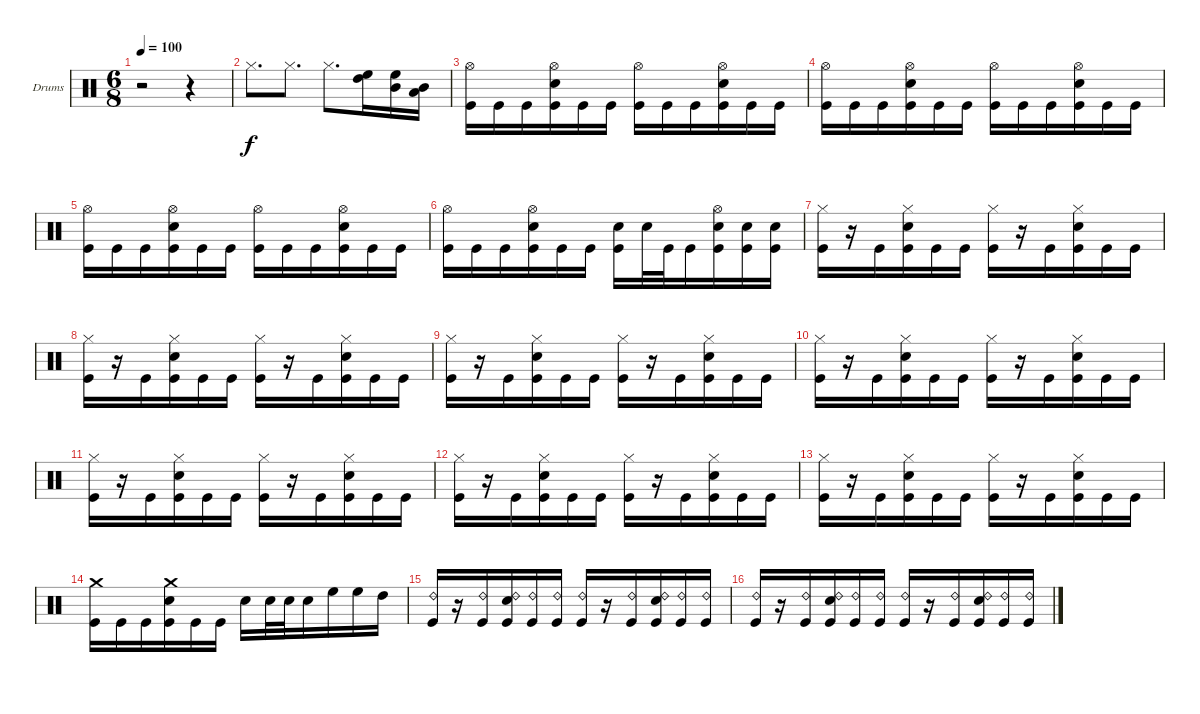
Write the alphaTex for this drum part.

\defaultSystemsLayout 4
\bracketExtendMode groupsimilarinstruments
\firstSystemTrackNameOrientation horizontal
\otherSystemsTrackNameOrientation horizontal
\track ("Drumkit" "Drums") {instrument percussion}
\staff {score}
\articulation defaults
\ts (6 8)
\tempo 100
\clef neutral
\scale
0.474178
\ks c
r.2{dy f} r.4 |
\scale
0.262911 "Hi-Hat (closed)".8{d lyrics (0 "") lyrics (1 "") lyrics (2 "") lyrics (3 "") lyrics (4 "")} "Hi-Hat (closed)".8{d lyrics (0 "") lyrics (1 "") lyrics (2 "") lyrics (3 "") lyrics (4 "")} "Hi-Hat (closed)".8{d} ("High Floor Tom (hit)" "High Tom (hit)").16 ("High Floor Tom (hit)" "Mid Tom (hit)").16 ("Mid Tom (hit)" "Low Tom (hit)").16 |
\scale
0.262911 ("Hi-Hat (open)" "Kick (hit)").16{lyrics (0 "") lyrics (1 "") lyrics (2 "") lyrics (3 "") lyrics (4 "")} "Kick (hit)".16{lyrics (0 "") lyrics (1 "") lyrics (2 "") lyrics (3 "") lyrics (4 "")} "Kick (hit)".16 ("Hi-Hat (open)" "Snare (hit) 2" "Kick (hit)").16 "Kick (hit)".16 "Kick (hit)".16 ("Hi-Hat (open)" "Kick (hit)").16 "Kick (hit)".16 "Kick (hit)".16 ("Hi-Hat (open)" "Snare (hit) 2" "Kick (hit)").16 "Kick (hit)".16 "Kick (hit)".16 |
\scale
0.333333 ("Hi-Hat (open)" "Kick (hit)").16{lyrics (0 "") lyrics (1 "") lyrics (2 "") lyrics (3 "") lyrics (4 "")} "Kick (hit)".16{lyrics (0 "") lyrics (1 "") lyrics (2 "") lyrics (3 "") lyrics (4 "")} "Kick (hit)".16 ("Hi-Hat (open)" "Snare (hit) 2" "Kick (hit)").16 "Kick (hit)".16 "Kick (hit)".16 ("Hi-Hat (open)" "Kick (hit)").16 "Kick (hit)".16 "Kick (hit)".16 ("Hi-Hat (open)" "Snare (hit) 2" "Kick (hit)").16 "Kick (hit)".16 "Kick (hit)".16 |
\scale
0.333333 ("Hi-Hat (open)" "Kick (hit)").16{lyrics (0 "") lyrics (1 "") lyrics (2 "") lyrics (3 "") lyrics (4 "")} "Kick (hit)".16{lyrics (0 "") lyrics (1 "") lyrics (2 "") lyrics (3 "") lyrics (4 "")} "Kick (hit)".16 ("Hi-Hat (open)" "Snare (hit) 2" "Kick (hit)").16 "Kick (hit)".16 "Kick (hit)".16 ("Hi-Hat (open)" "Kick (hit)").16 "Kick (hit)".16 "Kick (hit)".16 ("Hi-Hat (open)" "Snare (hit) 2" "Kick (hit)").16 "Kick (hit)".16 "Kick (hit)".16 |
\scale
0.333333 ("Hi-Hat (open)" "Kick (hit)").16{lyrics (0 "") lyrics (1 "") lyrics (2 "") lyrics (3 "") lyrics (4 "")} "Kick (hit)".16{lyrics (0 "") lyrics (1 "") lyrics (2 "") lyrics (3 "") lyrics (4 "")} "Kick (hit)".16 ("Hi-Hat (open)" "Snare (hit) 2" "Kick (hit)").16 "Kick (hit)".16 "Kick (hit)".16 ("Snare (hit) 2" "Kick (hit)").16 "Snare (hit) 2".32 "Kick (hit)".32 "Kick (hit)".16 ("Hi-Hat (open)" "Snare (hit) 2" "Kick (hit)").16 ("Snare (hit) 2" "Kick (hit)").16 ("Snare (hit) 2" "Kick (hit)").16 |
\scale
0.333333 ("Kick (hit)" "Hi-Hat (closed)").16{lyrics (0 "") lyrics (1 "") lyrics (2 "") lyrics (3 "") lyrics (4 "")} r.16 "Kick (hit)".16{lyrics (0 "") lyrics (1 "") lyrics (2 "") lyrics (3 "") lyrics (4 "")} ("Kick (hit)" "Snare (hit) 2" "Hi-Hat (closed)").16 "Kick (hit)".16 "Kick (hit)".16 ("Kick (hit)" "Hi-Hat (closed)").16 r.16 "Kick (hit)".16 ("Kick (hit)" "Snare (hit) 2" "Hi-Hat (closed)").16 "Kick (hit)".16 "Kick (hit)".16 |
\scale
0.333333 ("Kick (hit)" "Hi-Hat (closed)").16{lyrics (0 "") lyrics (1 "") lyrics (2 "") lyrics (3 "") lyrics (4 "")} r.16 "Kick (hit)".16{lyrics (0 "") lyrics (1 "") lyrics (2 "") lyrics (3 "") lyrics (4 "")} ("Kick (hit)" "Snare (hit) 2" "Hi-Hat (closed)").16 "Kick (hit)".16 "Kick (hit)".16 ("Kick (hit)" "Hi-Hat (closed)").16 r.16 "Kick (hit)".16 ("Kick (hit)" "Snare (hit) 2" "Hi-Hat (closed)").16 "Kick (hit)".16 "Kick (hit)".16 |
\scale
0.333333 ("Kick (hit)" "Hi-Hat (closed)").16{lyrics (0 "") lyrics (1 "") lyrics (2 "") lyrics (3 "") lyrics (4 "")} r.16 "Kick (hit)".16{lyrics (0 "") lyrics (1 "") lyrics (2 "") lyrics (3 "") lyrics (4 "")} ("Kick (hit)" "Snare (hit) 2" "Hi-Hat (closed)").16 "Kick (hit)".16 "Kick (hit)".16 ("Kick (hit)" "Hi-Hat (closed)").16 r.16 "Kick (hit)".16 ("Kick (hit)" "Snare (hit) 2" "Hi-Hat (closed)").16 "Kick (hit)".16 "Kick (hit)".16 |
\scale
0.333333 ("Kick (hit)" "Hi-Hat (closed)").16{lyrics (0 "") lyrics (1 "") lyrics (2 "") lyrics (3 "") lyrics (4 "")} r.16 "Kick (hit)".16{lyrics (0 "") lyrics (1 "") lyrics (2 "") lyrics (3 "") lyrics (4 "")} ("Kick (hit)" "Snare (hit) 2" "Hi-Hat (closed)").16 "Kick (hit)".16 "Kick (hit)".16 ("Kick (hit)" "Hi-Hat (closed)").16 r.16 "Kick (hit)".16 ("Kick (hit)" "Snare (hit) 2" "Hi-Hat (closed)").16 "Kick (hit)".16 "Kick (hit)".16 |
\scale
0.333333 ("Kick (hit)" "Hi-Hat (closed)").16{lyrics (0 "") lyrics (1 "") lyrics (2 "") lyrics (3 "") lyrics (4 "")} r.16 "Kick (hit)".16{lyrics (0 "") lyrics (1 "") lyrics (2 "") lyrics (3 "") lyrics (4 "")} ("Kick (hit)" "Snare (hit) 2" "Hi-Hat (closed)").16 "Kick (hit)".16 "Kick (hit)".16 ("Kick (hit)" "Hi-Hat (closed)").16 r.16 "Kick (hit)".16 ("Kick (hit)" "Snare (hit) 2" "Hi-Hat (closed)").16 "Kick (hit)".16 "Kick (hit)".16 |
\scale
0.333333 ("Kick (hit)" "Hi-Hat (closed)").16{lyrics (0 "") lyrics (1 "") lyrics (2 "") lyrics (3 "") lyrics (4 "")} r.16 "Kick (hit)".16{lyrics (0 "") lyrics (1 "") lyrics (2 "") lyrics (3 "") lyrics (4 "")} ("Kick (hit)" "Snare (hit) 2" "Hi-Hat (closed)").16 "Kick (hit)".16 "Kick (hit)".16 ("Kick (hit)" "Hi-Hat (closed)").16 r.16 "Kick (hit)".16 ("Kick (hit)" "Snare (hit) 2" "Hi-Hat (closed)").16 "Kick (hit)".16 "Kick (hit)".16 |
\scale
0.333333 ("Kick (hit)" "Hi-Hat (closed)").16{lyrics (0 "") lyrics (1 "") lyrics (2 "") lyrics (3 "") lyrics (4 "")} r.16 "Kick (hit)".16{lyrics (0 "") lyrics (1 "") lyrics (2 "") lyrics (3 "") lyrics (4 "")} ("Kick (hit)" "Snare (hit) 2" "Hi-Hat (closed)").16 "Kick (hit)".16 "Kick (hit)".16 ("Kick (hit)" "Hi-Hat (closed)").16 r.16 "Kick (hit)".16 ("Kick (hit)" "Snare (hit) 2" "Hi-Hat (closed)").16 "Kick (hit)".16 "Kick (hit)".16 |
\scale
0.333333 ("Kick (hit)" "Crash medium (hit)").16{lyrics (0 "") lyrics (1 "") lyrics (2 "") lyrics (3 "") lyrics (4 "")} "Kick (hit)".16{lyrics (0 "") lyrics (1 "") lyrics (2 "") lyrics (3 "") lyrics (4 "")} "Kick (hit)".16 ("Kick (hit)" "Snare (hit) 2" "Crash medium (hit)").16 "Kick (hit)".16 "Kick (hit)".16 "Snare (hit) 2".16 "Snare (hit) 2".32 "Snare (hit) 2".32 "Snare (hit) 2".16 "High Floor Tom (hit)".16 "High Floor Tom (hit)".16 "High Tom (hit)".16 |
\scale
0.333333 ("Kick (hit)" "Ride (bell) 2").16{lyrics (0 "") lyrics (1 "") lyrics (2 "") lyrics (3 "") lyrics (4 "")} r.16 ("Kick (hit)" "Ride (bell) 2").16{lyrics (0 "") lyrics (1 "") lyrics (2 "") lyrics (3 "") lyrics (4 "")} ("Kick (hit)" "Snare (hit) 2" "Ride (bell) 2").16 ("Kick (hit)" "Ride (bell) 2").16 ("Kick (hit)" "Ride (bell) 2").16 ("Kick (hit)" "Ride (bell) 2").16 r.16 ("Kick (hit)" "Ride (bell) 2").16 ("Kick (hit)" "Snare (hit) 2" "Ride (bell) 2").16 ("Kick (hit)" "Ride (bell) 2").16 ("Kick (hit)" "Ride (bell) 2").16 |
\scale
0.333333 ("Kick (hit)" "Ride (bell) 2").16{lyrics (0 "") lyrics (1 "") lyrics (2 "") lyrics (3 "") lyrics (4 "")} r.16 ("Kick (hit)" "Ride (bell) 2").16{lyrics (0 "") lyrics (1 "") lyrics (2 "") lyrics (3 "") lyrics (4 "")} ("Kick (hit)" "Snare (hit) 2" "Ride (bell) 2").16 ("Kick (hit)" "Ride (bell) 2").16 ("Kick (hit)" "Ride (bell) 2").16 ("Kick (hit)" "Ride (bell) 2").16 r.16 ("Kick (hit)" "Ride (bell) 2").16 ("Kick (hit)" "Snare (hit) 2" "Ride (bell) 2").16 ("Kick (hit)" "Ride (bell) 2").16 ("Kick (hit)" "Ride (bell) 2").16
